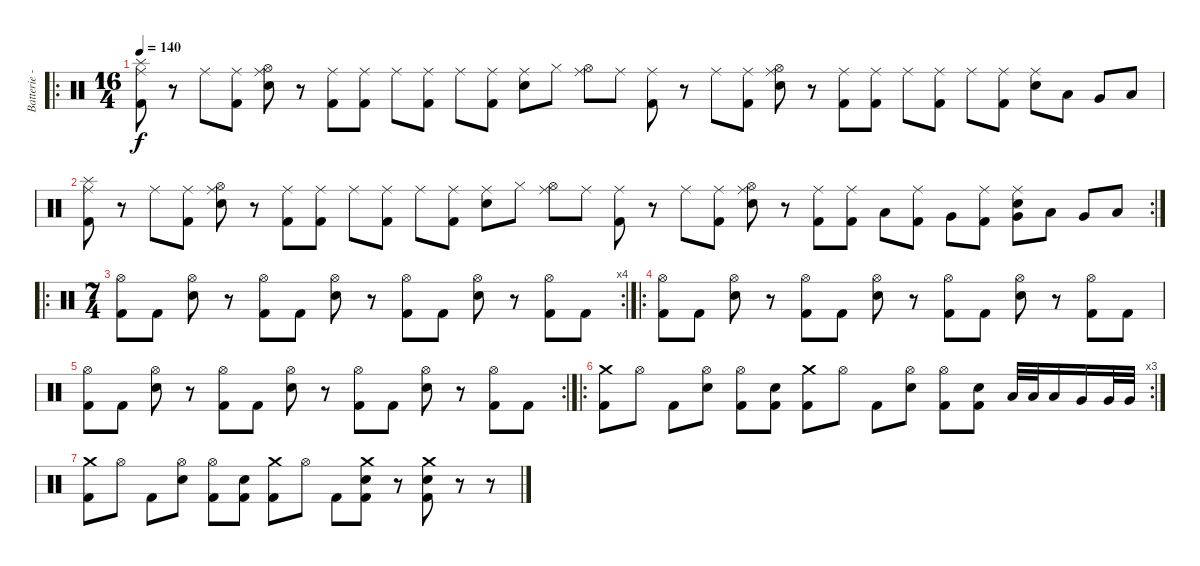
\track ("Batterie - " "Batterie -") {instrument percussion}
\staff {score}
\articulation defaults
\ro
\ts (16 4)
\tempo 140
\clef neutral
\ks c
("Splash (hit)" "Kick (hit) 2" "Ride (middle)").8{dy f} r.8 "Ride (middle)".8 ("Kick (hit) 2" "Ride (middle)").8 ("Hi-Hat (open)" "Electric Snare (hit)" "Ride (middle)").8 r.8 ("Kick (hit) 2" "Ride (middle)").8 ("Ride (middle)" "Kick (hit) 2").8 "Ride (middle)".8 ("Kick (hit) 2" "Ride (middle)").8 "Ride (middle)".8 ("Kick (hit) 2" "Ride (middle)").8 ("Electric Snare (hit)" "Ride (middle)").8 "Hi-Hat (closed)".8 ("Hi-Hat (open)" "Ride (middle)").8 "Ride (middle)".8 ("Kick (hit) 2" "Ride (middle)").8 r.8 "Ride (middle)".8 ("Kick (hit) 2" "Ride (middle)").8 ("Hi-Hat (open)" "Electric Snare (hit)" "Ride (middle)").8 r.8 ("Kick (hit) 2" "Ride (middle)").8 ("Kick (hit) 2" "Ride (middle)").8 "Ride (middle)".8 ("Kick (hit) 2" "Ride (middle)").8 "Ride (middle)".8 ("Kick (hit) 2" "Ride (middle)").8 ("Electric Snare (hit)" "Ride (middle)").8 "Low Tom (hit)".8 "Very Low Tom (hit)".8 "Low Floor Tom (hit)".8 |
\rc 2
("Splash (hit)" "Kick (hit) 2" "Ride (middle)").8 r.8 "Ride (middle)".8 ("Kick (hit) 2" "Ride (middle)").8 ("Hi-Hat (open)" "Electric Snare (hit)" "Ride (middle)").8 r.8 ("Kick (hit) 2" "Ride (middle)").8 ("Ride (middle)" "Kick (hit) 2").8 "Ride (middle)".8 ("Kick (hit) 2" "Ride (middle)").8 "Ride (middle)".8 ("Kick (hit) 2" "Ride (middle)").8 ("Electric Snare (hit)" "Ride (middle)").8 "Hi-Hat (closed)".8 ("Hi-Hat (open)" "Ride (middle)").8 "Ride (middle)".8 ("Kick (hit) 2" "Ride (middle)").8 r.8 "Ride (middle)".8 ("Kick (hit) 2" "Ride (middle)").8 ("Hi-Hat (open)" "Electric Snare (hit)" "Ride (middle)").8 r.8 ("Kick (hit) 2" "Ride (middle)").8 ("Kick (hit) 2" "Ride (middle)").8 "Low Tom (hit)".8 ("Kick (hit) 2" "Ride (middle)").8 "Very Low Tom (hit)".8 ("Kick (hit) 2" "Ride (middle)").8 ("Very Low Tom (hit)" "Electric Snare (hit)" "Ride (middle)").8 "Low Tom (hit)".8 "Very Low Tom (hit)".8 "Low Floor Tom (hit)".8 |
\ro
\rc 4
\ts (7 4)
("Kick (hit) 2" "Hi-Hat (open)").8 "Kick (hit) 2".8 ("Electric Snare (hit)" "Hi-Hat (open)").8 r.8 ("Kick (hit) 2" "Hi-Hat (open)").8 "Kick (hit) 2".8 ("Electric Snare (hit)" "Hi-Hat (open)").8 r.8 ("Kick (hit) 2" "Hi-Hat (open)").8 "Kick (hit) 2".8 ("Electric Snare (hit)" "Hi-Hat (open)").8 r.8 ("Kick (hit) 2" "Hi-Hat (open)").8 "Kick (hit) 2".8 |
\ro
("Kick (hit) 2" "Hi-Hat (open)").8 "Kick (hit) 2".8 ("Electric Snare (hit)" "Hi-Hat (open)").8 r.8 ("Kick (hit) 2" "Hi-Hat (open)").8 "Kick (hit) 2".8 ("Electric Snare (hit)" "Hi-Hat (open)").8 r.8 ("Kick (hit) 2" "Hi-Hat (open)").8 "Kick (hit) 2".8 ("Electric Snare (hit)" "Hi-Hat (open)").8 r.8 ("Kick (hit) 2" "Hi-Hat (open)").8 "Kick (hit) 2".8 |
\rc 2
("Kick (hit) 2" "Hi-Hat (open)").8 "Kick (hit) 2".8 ("Electric Snare (hit)" "Hi-Hat (open)").8 r.8 ("Kick (hit) 2" "Hi-Hat (open)").8 "Kick (hit) 2".8 ("Electric Snare (hit)" "Hi-Hat (open)").8 r.8 ("Kick (hit) 2" "Hi-Hat (open)").8 "Kick (hit) 2".8 ("Electric Snare (hit)" "Hi-Hat (open)").8 r.8 ("Kick (hit) 2" "Hi-Hat (open)").8 "Kick (hit) 2".8 |
\ro
\rc 3
("Kick (hit) 2" "Crash medium (hit)").8 "Hi-Hat (open)".8 "Kick (hit) 2".8 ("Electric Snare (hit)" "Hi-Hat (open)").8 ("Kick (hit) 2" "Hi-Hat (open)").8 ("Electric Snare (hit)" "Kick (hit) 2").8 ("Kick (hit) 2" "Crash medium (hit)").8 "Hi-Hat (open)".8 "Kick (hit) 2".8 ("Hi-Hat (open)" "Electric Snare (hit)").8 ("Kick (hit) 2" "Hi-Hat (open)").8 ("Kick (hit) 2" "Electric Snare (hit)").8 "Low Tom (hit)".32 "Low Tom (hit)".32 "Low Tom (hit)".16 "Very Low Tom (hit)".16 "Very Low Tom (hit)".32 "Very Low Tom (hit)".32 |
("Kick (hit) 2" "Crash medium (hit)").8 "Hi-Hat (open)".8 "Kick (hit) 2".8 ("Electric Snare (hit)" "Hi-Hat (open)").8 ("Kick (hit) 2" "Hi-Hat (open)").8 ("Electric Snare (hit)" "Kick (hit) 2").8 ("Kick (hit) 2" "Crash medium (hit)").8 "Hi-Hat (open)".8 "Kick (hit) 2".8 ("Kick (hit) 2" "Crash medium (hit)" "Electric Snare (hit)").8 r.8 ("Kick (hit) 2" "Crash medium (hit)" "Electric Snare (hit)").8 r.8 r.8
